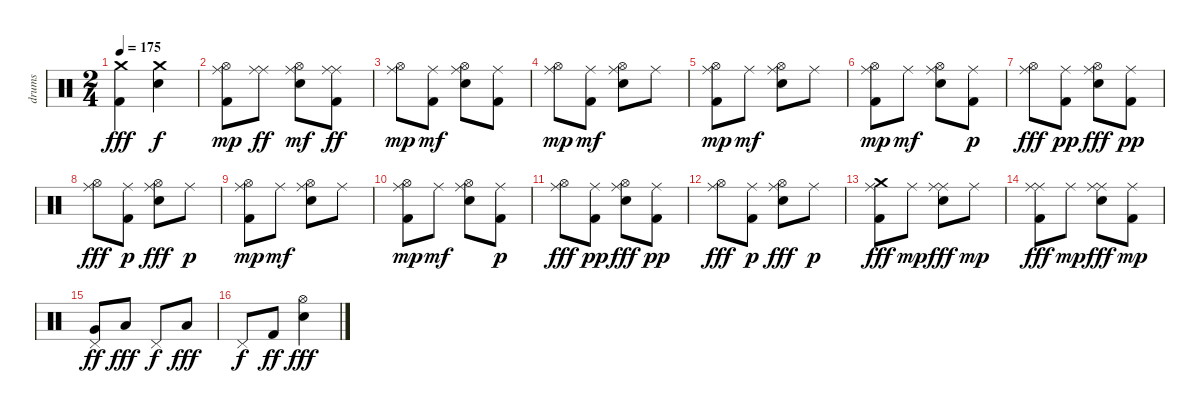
\track ("drums" "drums") {instrument percussion}
\staff {score}
\articulation defaults
\ts (2 4)
\tempo 175
\clef neutral
\ks c
("Crash medium (hit)" "Kick (hit) 2").4{dy fff} ("Crash medium (hit)" "Snare (hit) 2").4{dy f} |
("Hi-Hat (open)" "Ride (middle)" "Kick (hit) 2").8{dy mp} ("Ride (middle)" "Ride (middle)").8{dy ff} ("Hi-Hat (open)" "Ride (middle)" "Snare (hit) 2").8{dy mf} ("Ride (middle)" "Ride (middle)" "Kick (hit) 2").8{dy ff} |
("Hi-Hat (open)" "Ride (middle)").8{dy mp} ("Ride (middle)" "Kick (hit) 2").8{dy mf} ("Hi-Hat (open)" "Ride (middle)" "Snare (hit) 2").8 ("Ride (middle)" "Kick (hit) 2").8 |
("Hi-Hat (open)" "Ride (middle)").8{dy mp} ("Ride (middle)" "Kick (hit) 2").8{dy mf} ("Hi-Hat (open)" "Ride (middle)" "Snare (hit) 2").8 "Ride (middle)".8 |
("Hi-Hat (open)" "Ride (middle)" "Kick (hit) 2").8{dy mp} "Ride (middle)".8{dy mf} ("Hi-Hat (open)" "Ride (middle)" "Snare (hit) 2").8 "Ride (middle)".8 |
("Hi-Hat (open)" "Ride (middle)" "Kick (hit) 2").8{dy mp} "Ride (middle)".8{dy mf} ("Hi-Hat (open)" "Ride (middle)" "Snare (hit) 2").8 ("Ride (middle)" "Kick (hit) 2").8{dy p} |
("Hi-Hat (open)" "Ride (middle)").8{dy fff} ("Ride (middle)" "Kick (hit) 2").8{dy pp} ("Hi-Hat (open)" "Ride (middle)" "Snare (hit) 2").8{dy fff} ("Ride (middle)" "Kick (hit) 2").8{dy pp} |
("Hi-Hat (open)" "Ride (middle)").8{dy fff} ("Ride (middle)" "Kick (hit) 2").8{dy p} ("Hi-Hat (open)" "Ride (middle)" "Snare (hit) 2").8{dy fff} "Ride (middle)".8{dy p} |
("Hi-Hat (open)" "Ride (middle)" "Kick (hit) 2").8{dy mp} "Ride (middle)".8{dy mf} ("Hi-Hat (open)" "Ride (middle)" "Snare (hit) 2").8 "Ride (middle)".8 |
("Hi-Hat (open)" "Ride (middle)" "Kick (hit) 2").8{dy mp} "Ride (middle)".8{dy mf} ("Hi-Hat (open)" "Ride (middle)" "Snare (hit) 2").8 ("Ride (middle)" "Kick (hit) 2").8{dy p} |
("Hi-Hat (open)" "Ride (middle)").8{dy fff} ("Ride (middle)" "Kick (hit) 2").8{dy pp} ("Hi-Hat (open)" "Ride (middle)" "Snare (hit) 2").8{dy fff} ("Ride (middle)" "Kick (hit) 2").8{dy pp} |
("Hi-Hat (open)" "Ride (middle)").8{dy fff} ("Ride (middle)" "Kick (hit) 2").8{dy p} ("Hi-Hat (open)" "Ride (middle)" "Snare (hit) 2").8{dy fff} "Ride (middle)".8{dy p} |
("Crash medium (hit)" "Ride (middle)" "Kick (hit) 2").8{dy fff} "Ride (middle)".8{dy mp} ("Ride (middle)" "Ride (middle)" "Snare (hit) 2").8{dy fff} "Ride (middle)".8{dy mp} |
("Ride (middle)" "Ride (middle)" "Kick (hit) 2").8{dy fff} "Ride (middle)".8{dy mp} ("Ride (middle)" "Ride (middle)" "Snare (hit) 2").8{dy fff} ("Ride (middle)" "Kick (hit) 2").8{dy mp} |
("Pedal Hi-Hat (hit)" "Very Low Tom (hit)").8{dy ff} "Low Floor Tom (hit)".8{dy fff} "Pedal Hi-Hat (hit)".8{dy f} "Low Floor Tom (hit)".8{dy fff} |
"Pedal Hi-Hat (hit)".8{dy f} "Kick (hit) 2".8{dy ff} ("Hi-Hat (open)" "Snare (hit) 2").4{dy fff}
